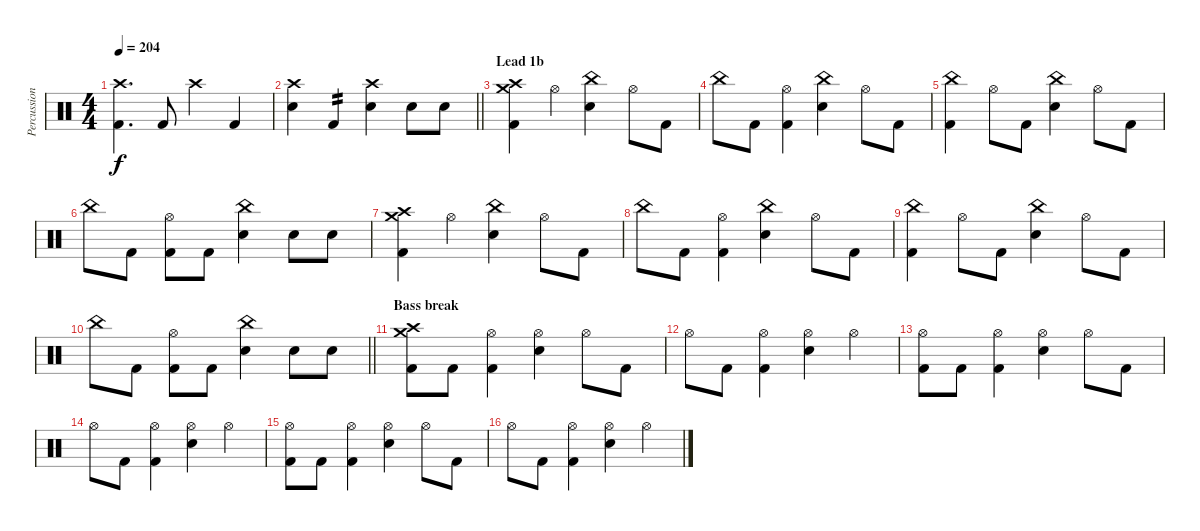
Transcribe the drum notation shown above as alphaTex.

\track ("Percussions" "Percussion") {instrument percussion}
\staff {score}
\articulation defaults
\ts (4 4)
\tempo 204
\clef neutral
\ks c
("Crash high (hit)" "Kick (hit) 2").4{d dy f} "Kick (hit) 2".8 "Crash high (hit)".4 "Kick (hit) 2".4 |
\barLineRight lightlight
("Crash high (hit)" "Electric Snare (hit)").4 "Kick (hit) 2".4{tp 2} ("Crash high (hit)" "Electric Snare (hit)").4 "Electric Snare (hit)".8 "Electric Snare (hit)".8 |
\section ("" "Lead 1b")
("Crash medium (hit)" "Crash high (hit)" "Kick (hit) 2").4 "Hi-Hat (open)".4 ("China (hit)" "Electric Snare (hit)").4 "Hi-Hat (open)".8 "Kick (hit) 2".8 |
"China (hit)".8 "Kick (hit) 2".8 ("Hi-Hat (open)" "Kick (hit) 2").4 ("China (hit)" "Electric Snare (hit)").4 "Hi-Hat (open)".8 "Kick (hit) 2".8 |
("China (hit)" "Kick (hit) 2").4 "Hi-Hat (open)".8 "Kick (hit) 2".8 ("China (hit)" "Electric Snare (hit)").4 "Hi-Hat (open)".8 "Kick (hit) 2".8 |
"China (hit)".8 "Kick (hit) 2".8 ("Hi-Hat (open)" "Kick (hit) 2").8 "Kick (hit) 2".8 ("China (hit)" "Electric Snare (hit)").4 "Electric Snare (hit)".8 "Electric Snare (hit)".8 |
("Crash medium (hit)" "Crash high (hit)" "Kick (hit) 2").4 "Hi-Hat (open)".4 ("China (hit)" "Electric Snare (hit)").4 "Hi-Hat (open)".8 "Kick (hit) 2".8 |
"China (hit)".8 "Kick (hit) 2".8 ("Hi-Hat (open)" "Kick (hit) 2").4 ("China (hit)" "Electric Snare (hit)").4 "Hi-Hat (open)".8 "Kick (hit) 2".8 |
("China (hit)" "Kick (hit) 2").4 "Hi-Hat (open)".8 "Kick (hit) 2".8 ("China (hit)" "Electric Snare (hit)").4 "Hi-Hat (open)".8 "Kick (hit) 2".8 |
\barLineRight lightlight "China (hit)".8 "Kick (hit) 2".8
("Hi-Hat (open)" "Kick (hit) 2").8 "Kick (hit) 2".8 ("China (hit)" "Electric Snare (hit)").4 "Electric Snare (hit)".8 "Electric Snare (hit)".8 |
\section ("" "Bass break")
("Crash medium (hit)" "Crash high (hit)" "Kick (hit) 2").8 "Kick (hit) 2".8 ("Hi-Hat (open)" "Kick (hit) 2").4 ("Hi-Hat (open)" "Electric Snare (hit)").4 "Hi-Hat (open)".8 "Kick (hit) 2".8 |
"Hi-Hat (open)".8 "Kick (hit) 2".8 ("Hi-Hat (open)" "Kick (hit) 2").4 ("Hi-Hat (open)" "Electric Snare (hit)").4 "Hi-Hat (open)".4 |
("Hi-Hat (open)" "Kick (hit) 2").8 "Kick (hit) 2".8 ("Hi-Hat (open)" "Kick (hit) 2").4 ("Hi-Hat (open)" "Electric Snare (hit)").4 "Hi-Hat (open)".8 "Kick (hit) 2".8 |
"Hi-Hat (open)".8 "Kick (hit) 2".8 ("Hi-Hat (open)" "Kick (hit) 2").4 ("Hi-Hat (open)" "Electric Snare (hit)").4 "Hi-Hat (open)".4 |
("Hi-Hat (open)" "Kick (hit) 2").8 "Kick (hit) 2".8 ("Hi-Hat (open)" "Kick (hit) 2").4 ("Hi-Hat (open)" "Electric Snare (hit)").4 "Hi-Hat (open)".8 "Kick (hit) 2".8 |
"Hi-Hat (open)".8 "Kick (hit) 2".8 ("Hi-Hat (open)" "Kick (hit) 2").4 ("Hi-Hat (open)" "Electric Snare (hit)").4 "Hi-Hat (open)".4
